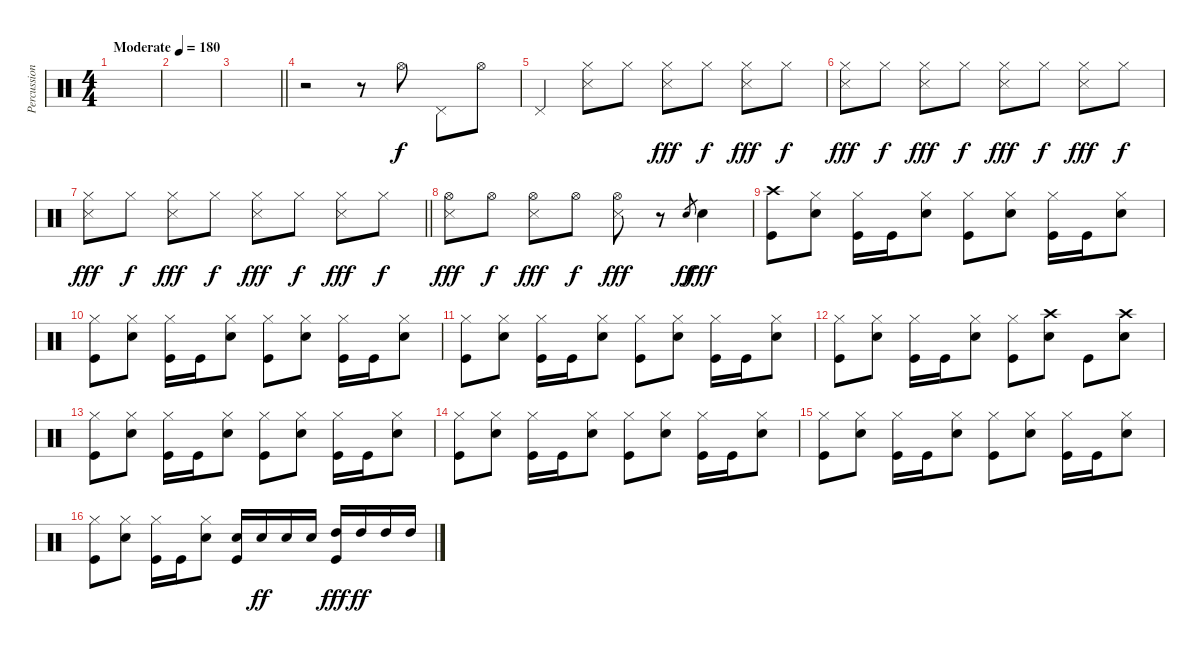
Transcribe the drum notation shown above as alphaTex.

\track ("Percussion" "Percussion") {instrument percussion}
\staff {score}
\articulation defaults
\ts (4 4)
\tempo (180 "Moderate")
\clef neutral
\ks c
|
|
\barLineRight lightlight
|
r.2 r.8 "Hi-Hat (open)".8 "Pedal Hi-Hat (hit)".8 "Hi-Hat (open)".8 |
"Pedal Hi-Hat (hit)".4 ("Snare (side stick) 3" "Hi-Hat (closed)").8 "Hi-Hat (closed)".8{dy f} ("Snare (side stick) 3" "Hi-Hat (closed)").8{dy fff} "Hi-Hat (closed)".8{dy f} ("Snare (side stick) 3" "Hi-Hat (closed)").8{dy fff} "Hi-Hat (closed)".8{dy f} |
("Snare (side stick) 3" "Hi-Hat (closed)").8{dy fff} "Hi-Hat (closed)".8{dy f} ("Snare (side stick) 3" "Hi-Hat (closed)").8{dy fff} "Hi-Hat (closed)".8{dy f} ("Snare (side stick) 3" "Hi-Hat (closed)").8{dy fff} "Hi-Hat (closed)".8{dy f} ("Snare (side stick) 3" "Hi-Hat (closed)").8{dy fff} "Hi-Hat (closed)".8{dy f} |
\barLineRight lightlight
("Snare (side stick) 3" "Hi-Hat (closed)").8{dy fff} "Hi-Hat (closed)".8{dy f} ("Snare (side stick) 3" "Hi-Hat (closed)").8{dy fff} "Hi-Hat (closed)".8{dy f} ("Snare (side stick) 3" "Hi-Hat (closed)").8{dy fff} "Hi-Hat (closed)".8{dy f} ("Snare (side stick) 3" "Hi-Hat (closed)").8{dy fff} "Hi-Hat (closed)".8{dy f} |
("Snare (side stick) 3" "Hi-Hat (open)").8{dy fff} "Hi-Hat (open)".8{dy f} ("Snare (side stick) 3" "Hi-Hat (open)").8{dy fff} "Hi-Hat (open)".8{dy f} ("Snare (side stick) 3" "Hi-Hat (open)").8{dy fff} r.8 "Snare (hit) 2".8{gr dy ff} "Snare (hit) 2".4{dy fff} |
("Kick (hit)" "Crash high (hit)").8 ("Snare (hit) 2" "Hi-Hat (closed)").8 ("Kick (hit)" "Hi-Hat (closed)").16 "Kick (hit)".16 ("Snare (hit) 2" "Hi-Hat (closed)").8 ("Kick (hit)" "Hi-Hat (closed)").8 ("Snare (hit) 2" "Hi-Hat (closed)").8 ("Kick (hit)" "Hi-Hat (closed)").16 "Kick (hit)".16 ("Snare (hit) 2" "Hi-Hat (closed)").8 |
("Kick (hit)" "Hi-Hat (closed)").8 ("Snare (hit) 2" "Hi-Hat (closed)").8 ("Kick (hit)" "Hi-Hat (closed)").16 "Kick (hit)".16 ("Snare (hit) 2" "Hi-Hat (closed)").8 ("Kick (hit)" "Hi-Hat (closed)").8 ("Snare (hit) 2" "Hi-Hat (closed)").8 ("Kick (hit)" "Hi-Hat (closed)").16 "Kick (hit)".16 ("Snare (hit) 2" "Hi-Hat (closed)").8 |
("Kick (hit)" "Hi-Hat (closed)").8 ("Snare (hit) 2" "Hi-Hat (closed)").8 ("Kick (hit)" "Hi-Hat (closed)").16 "Kick (hit)".16 ("Snare (hit) 2" "Hi-Hat (closed)").8 ("Kick (hit)" "Hi-Hat (closed)").8 ("Snare (hit) 2" "Hi-Hat (closed)").8 ("Kick (hit)" "Hi-Hat (closed)").16 "Kick (hit)".16 ("Snare (hit) 2" "Hi-Hat (closed)").8 |
("Kick (hit)" "Hi-Hat (closed)").8 ("Snare (hit) 2" "Hi-Hat (closed)").8 ("Kick (hit)" "Hi-Hat (closed)").16 "Kick (hit)".16 ("Snare (hit) 2" "Hi-Hat (closed)").8 ("Kick (hit)" "Hi-Hat (closed)").8 ("Snare (hit) 2" "Crash high (hit)").8 "Kick (hit)".8 ("Snare (hit) 2" "Crash high (hit)").8 |
("Kick (hit)" "Hi-Hat (closed)").8 ("Snare (hit) 2" "Hi-Hat (closed)").8 ("Kick (hit)" "Hi-Hat (closed)").16 "Kick (hit)".16 ("Snare (hit) 2" "Hi-Hat (closed)").8 ("Kick (hit)" "Hi-Hat (closed)").8 ("Snare (hit) 2" "Hi-Hat (closed)").8 ("Kick (hit)" "Hi-Hat (closed)").16 "Kick (hit)".16 ("Snare (hit) 2" "Hi-Hat (closed)").8 |
("Kick (hit)" "Hi-Hat (closed)").8 ("Snare (hit) 2" "Hi-Hat (closed)").8 ("Kick (hit)" "Hi-Hat (closed)").16 "Kick (hit)".16 ("Snare (hit) 2" "Hi-Hat (closed)").8 ("Kick (hit)" "Hi-Hat (closed)").8 ("Snare (hit) 2" "Hi-Hat (closed)").8 ("Kick (hit)" "Hi-Hat (closed)").16 "Kick (hit)".16 ("Snare (hit) 2" "Hi-Hat (closed)").8 |
("Kick (hit)" "Hi-Hat (closed)").8 ("Snare (hit) 2" "Hi-Hat (closed)").8 ("Kick (hit)" "Hi-Hat (closed)").16 "Kick (hit)".16 ("Snare (hit) 2" "Hi-Hat (closed)").8 ("Kick (hit)" "Hi-Hat (closed)").8 ("Snare (hit) 2" "Hi-Hat (closed)").8 ("Kick (hit)" "Hi-Hat (closed)").16 "Kick (hit)".16 ("Snare (hit) 2" "Hi-Hat (closed)").8 |
("Kick (hit)" "Hi-Hat (closed)").8 ("Snare (hit) 2" "Hi-Hat (closed)").8 ("Kick (hit)" "Hi-Hat (closed)").16 "Kick (hit)".16 ("Snare (hit) 2" "Hi-Hat (closed)").8 ("Kick (hit)" "Snare (hit) 2").16 "Snare (hit) 2".16{dy ff} "Snare (hit) 2".16 "Snare (hit) 2".16 ("Kick (hit)" "High Tom (hit)").16{dy fff} "High Tom (hit)".16{dy ff} "High Tom (hit)".16 "High Tom (hit)".16
